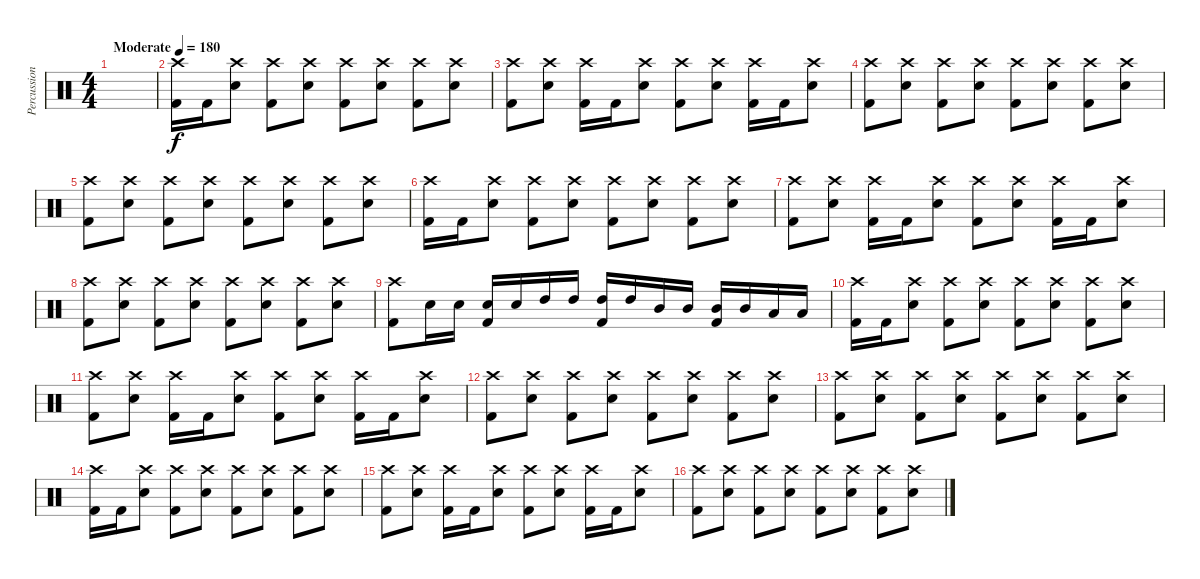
\track ("Percussion" "Percussion") {instrument percussion}
\staff {score}
\articulation defaults
\ts (4 4)
\tempo (180 "Moderate")
\clef neutral
\ks c
|
("Crash high (hit)" "Kick (hit) 2").16 "Kick (hit) 2".16 ("Crash high (hit)" "Snare (hit) 2").8 ("Crash high (hit)" "Kick (hit) 2").8 ("Crash high (hit)" "Snare (hit) 2").8 ("Crash high (hit)" "Kick (hit) 2").8 ("Crash high (hit)" "Snare (hit) 2").8 ("Crash high (hit)" "Kick (hit) 2").8 ("Crash high (hit)" "Snare (hit) 2").8 |
("Crash high (hit)" "Kick (hit) 2").8 ("Crash high (hit)" "Snare (hit) 2").8 ("Crash high (hit)" "Kick (hit) 2").16 "Kick (hit) 2".16 ("Crash high (hit)" "Snare (hit) 2").8 ("Crash high (hit)" "Kick (hit) 2").8 ("Crash high (hit)" "Snare (hit) 2").8 ("Crash high (hit)" "Kick (hit) 2").16 "Kick (hit) 2".16 ("Crash high (hit)" "Snare (hit) 2").8 |
("Crash high (hit)" "Kick (hit) 2").8 ("Crash high (hit)" "Snare (hit) 2").8 ("Crash high (hit)" "Kick (hit) 2").8 ("Crash high (hit)" "Snare (hit) 2").8 ("Crash high (hit)" "Kick (hit) 2").8 ("Crash high (hit)" "Snare (hit) 2").8 ("Crash high (hit)" "Kick (hit) 2").8 ("Crash high (hit)" "Snare (hit) 2").8 |
("Crash high (hit)" "Kick (hit) 2").8 ("Crash high (hit)" "Snare (hit) 2").8 ("Crash high (hit)" "Kick (hit) 2").8 ("Crash high (hit)" "Snare (hit) 2").8 ("Crash high (hit)" "Kick (hit) 2").8 ("Crash high (hit)" "Snare (hit) 2").8 ("Crash high (hit)" "Kick (hit) 2").8 ("Crash high (hit)" "Snare (hit) 2").8 |
("Crash high (hit)" "Kick (hit) 2").16 "Kick (hit) 2".16 ("Crash high (hit)" "Snare (hit) 2").8 ("Crash high (hit)" "Kick (hit) 2").8 ("Crash high (hit)" "Snare (hit) 2").8 ("Crash high (hit)" "Kick (hit) 2").8 ("Crash high (hit)" "Snare (hit) 2").8 ("Crash high (hit)" "Kick (hit) 2").8 ("Crash high (hit)" "Snare (hit) 2").8 |
("Crash high (hit)" "Kick (hit) 2").8 ("Crash high (hit)" "Snare (hit) 2").8 ("Crash high (hit)" "Kick (hit) 2").16 "Kick (hit) 2".16 ("Crash high (hit)" "Snare (hit) 2").8 ("Crash high (hit)" "Kick (hit) 2").8 ("Crash high (hit)" "Snare (hit) 2").8 ("Crash high (hit)" "Kick (hit) 2").16 "Kick (hit) 2".16 ("Crash high (hit)" "Snare (hit) 2").8 |
("Crash high (hit)" "Kick (hit) 2").8 ("Crash high (hit)" "Snare (hit) 2").8 ("Crash high (hit)" "Kick (hit) 2").8 ("Crash high (hit)" "Snare (hit) 2").8 ("Crash high (hit)" "Kick (hit) 2").8 ("Crash high (hit)" "Snare (hit) 2").8 ("Crash high (hit)" "Kick (hit) 2").8 ("Crash high (hit)" "Snare (hit) 2").8 |
("Crash high (hit)" "Kick (hit) 2").8 "Snare (hit) 2".16 "Snare (hit) 2".16 ("Snare (hit) 2" "Kick (hit) 2").16 "Snare (hit) 2".16 "High Tom (hit)".16 "High Tom (hit)".16 ("High Tom (hit)" "Kick (hit) 2").16 "High Tom (hit)".16 "Mid Tom (hit)".16 "Mid Tom (hit)".16 ("Mid Tom (hit)" "Kick (hit) 2").16 "Mid Tom (hit)".16 "Low Tom (hit)".16 "Low Tom (hit)".16 |
("Crash high (hit)" "Kick (hit) 2").16 "Kick (hit) 2".16 ("Crash high (hit)" "Snare (hit) 2").8 ("Crash high (hit)" "Kick (hit) 2").8 ("Crash high (hit)" "Snare (hit) 2").8 ("Crash high (hit)" "Kick (hit) 2").8 ("Crash high (hit)" "Snare (hit) 2").8 ("Crash high (hit)" "Kick (hit) 2").8 ("Crash high (hit)" "Snare (hit) 2").8 |
("Crash high (hit)" "Kick (hit) 2").8 ("Crash high (hit)" "Snare (hit) 2").8 ("Crash high (hit)" "Kick (hit) 2").16 "Kick (hit) 2".16 ("Crash high (hit)" "Snare (hit) 2").8 ("Crash high (hit)" "Kick (hit) 2").8 ("Crash high (hit)" "Snare (hit) 2").8 ("Crash high (hit)" "Kick (hit) 2").16 "Kick (hit) 2".16 ("Crash high (hit)" "Snare (hit) 2").8 |
("Crash high (hit)" "Kick (hit) 2").8 ("Crash high (hit)" "Snare (hit) 2").8 ("Crash high (hit)" "Kick (hit) 2").8 ("Crash high (hit)" "Snare (hit) 2").8 ("Crash high (hit)" "Kick (hit) 2").8 ("Crash high (hit)" "Snare (hit) 2").8 ("Crash high (hit)" "Kick (hit) 2").8 ("Crash high (hit)" "Snare (hit) 2").8 |
("Crash high (hit)" "Kick (hit) 2").8 ("Crash high (hit)" "Snare (hit) 2").8 ("Crash high (hit)" "Kick (hit) 2").8 ("Crash high (hit)" "Snare (hit) 2").8 ("Crash high (hit)" "Kick (hit) 2").8 ("Crash high (hit)" "Snare (hit) 2").8 ("Crash high (hit)" "Kick (hit) 2").8 ("Crash high (hit)" "Snare (hit) 2").8 |
("Crash high (hit)" "Kick (hit) 2").16 "Kick (hit) 2".16 ("Crash high (hit)" "Snare (hit) 2").8 ("Crash high (hit)" "Kick (hit) 2").8 ("Crash high (hit)" "Snare (hit) 2").8 ("Crash high (hit)" "Kick (hit) 2").8 ("Crash high (hit)" "Snare (hit) 2").8 ("Crash high (hit)" "Kick (hit) 2").8 ("Crash high (hit)" "Snare (hit) 2").8 |
("Crash high (hit)" "Kick (hit) 2").8 ("Crash high (hit)" "Snare (hit) 2").8 ("Crash high (hit)" "Kick (hit) 2").16 "Kick (hit) 2".16 ("Crash high (hit)" "Snare (hit) 2").8 ("Crash high (hit)" "Kick (hit) 2").8 ("Crash high (hit)" "Snare (hit) 2").8 ("Crash high (hit)" "Kick (hit) 2").16 "Kick (hit) 2".16 ("Crash high (hit)" "Snare (hit) 2").8 |
("Crash high (hit)" "Kick (hit) 2").8 ("Crash high (hit)" "Snare (hit) 2").8 ("Crash high (hit)" "Kick (hit) 2").8 ("Crash high (hit)" "Snare (hit) 2").8 ("Crash high (hit)" "Kick (hit) 2").8 ("Crash high (hit)" "Snare (hit) 2").8 ("Crash high (hit)" "Kick (hit) 2").8 ("Crash high (hit)" "Snare (hit) 2").8
